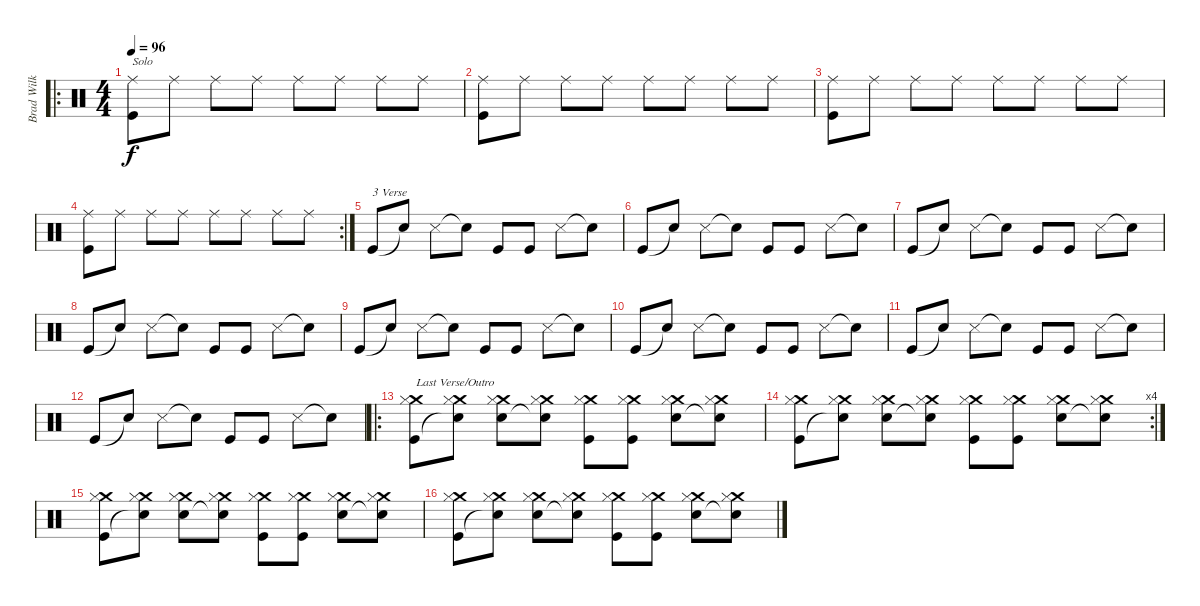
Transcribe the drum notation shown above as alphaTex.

\track ("Brad Wilk" "Brad Wilk") {instrument percussion}
\staff {score}
\articulation defaults
\ro
\ts (4 4)
\tempo 96
\clef neutral
\ks c
("Ride (middle)" "Kick (hit)").8{txt "Solo" dy f} "Ride (middle)".8 "Ride (middle)".8 "Ride (middle)".8 "Ride (middle)".8 "Ride (middle)".8 "Ride (middle)".8 "Ride (middle)".8 |
("Ride (middle)" "Kick (hit)").8 "Ride (middle)".8 "Ride (middle)".8 "Ride (middle)".8 "Ride (middle)".8 "Ride (middle)".8 "Ride (middle)".8 "Ride (middle)".8 |
("Ride (middle)" "Kick (hit)").8 "Ride (middle)".8 "Ride (middle)".8 "Ride (middle)".8 "Ride (middle)".8 "Ride (middle)".8 "Ride (middle)".8 "Ride (middle)".8 |
\rc 2
("Ride (middle)" "Kick (hit)").8 "Ride (middle)".8 "Ride (middle)".8 "Ride (middle)".8 "Ride (middle)".8 "Ride (middle)".8 "Ride (middle)".8 "Ride (middle)".8 |
"Kick (hit)".8{txt "3 Verse"} "Snare (hit)"{t}.8 "Snare (side stick) 3".8 "Snare (hit)"{t}.8 "Kick (hit)".8 "Kick (hit)".8 "Snare (side stick) 3".8 "Snare (hit)"{t}.8 |
"Kick (hit)".8 "Snare (hit)"{t}.8 "Snare (side stick) 3".8 "Snare (hit)"{t}.8 "Kick (hit)".8 "Kick (hit)".8 "Snare (side stick) 3".8 "Snare (hit)"{t}.8 |
"Kick (hit)".8 "Snare (hit)"{t}.8 "Snare (side stick) 3".8 "Snare (hit)"{t}.8 "Kick (hit)".8 "Kick (hit)".8 "Snare (side stick) 3".8 "Snare (hit)"{t}.8 |
"Kick (hit)".8 "Snare (hit)"{t}.8 "Snare (side stick) 3".8 "Snare (hit)"{t}.8 "Kick (hit)".8 "Kick (hit)".8 "Snare (side stick) 3".8 "Snare (hit)"{t}.8 |
"Kick (hit)".8 "Snare (hit)"{t}.8 "Snare (side stick) 3".8 "Snare (hit)"{t}.8 "Kick (hit)".8 "Kick (hit)".8 "Snare (side stick) 3".8 "Snare (hit)"{t}.8 |
"Kick (hit)".8 "Snare (hit)"{t}.8 "Snare (side stick) 3".8 "Snare (hit)"{t}.8 "Kick (hit)".8 "Kick (hit)".8 "Snare (side stick) 3".8 "Snare (hit)"{t}.8 |
"Kick (hit)".8 "Snare (hit)"{t}.8 "Snare (side stick) 3".8 "Snare (hit)"{t}.8 "Kick (hit)".8 "Kick (hit)".8 "Snare (side stick) 3".8 "Snare (hit)"{t}.8 |
"Kick (hit)".8 "Snare (hit)"{t}.8 "Snare (side stick) 3".8 "Snare (hit)"{t}.8 "Kick (hit)".8 "Kick (hit)".8 "Snare (side stick) 3".8 "Snare (hit)"{t}.8 |
\ro
("Crash medium (hit)" "Hi-Hat (closed)" "Kick (hit)").8{txt "Last Verse/Outro"} ("Crash medium (hit)" "Hi-Hat (closed)" "Snare (hit)"{t}).8 ("Crash medium (hit)" "Hi-Hat (closed)" "Snare (hit) 2").8 ("Crash medium (hit)" "Hi-Hat (closed)" "Snare (hit)"{t}).8 ("Crash medium (hit)" "Hi-Hat (closed)" "Kick (hit)").8 ("Crash medium (hit)" "Hi-Hat (closed)" "Kick (hit)").8 ("Crash medium (hit)" "Hi-Hat (closed)" "Snare (hit) 2").8 ("Crash medium (hit)" "Hi-Hat (closed)" "Snare (hit)"{t}).8 |
\rc 4
("Crash medium (hit)" "Hi-Hat (closed)" "Kick (hit)").8 ("Crash medium (hit)" "Hi-Hat (closed)" "Snare (hit)"{t}).8 ("Crash medium (hit)" "Hi-Hat (closed)" "Snare (hit) 2").8 ("Crash medium (hit)" "Hi-Hat (closed)" "Snare (hit)"{t}).8 ("Crash medium (hit)" "Hi-Hat (closed)" "Kick (hit)").8 ("Crash medium (hit)" "Hi-Hat (closed)" "Kick (hit)").8 ("Crash medium (hit)" "Hi-Hat (closed)" "Snare (hit) 2").8 ("Crash medium (hit)" "Hi-Hat (closed)" "Snare (hit)"{t}).8 |
("Crash medium (hit)" "Hi-Hat (closed)" "Kick (hit)").8 ("Crash medium (hit)" "Hi-Hat (closed)" "Snare (hit)"{t}).8 ("Crash medium (hit)" "Hi-Hat (closed)" "Snare (hit) 2").8 ("Crash medium (hit)" "Hi-Hat (closed)" "Snare (hit)"{t}).8 ("Crash medium (hit)" "Hi-Hat (closed)" "Kick (hit)").8 ("Crash medium (hit)" "Hi-Hat (closed)" "Kick (hit)").8 ("Crash medium (hit)" "Hi-Hat (closed)" "Snare (hit) 2").8 ("Crash medium (hit)" "Hi-Hat (closed)" "Snare (hit)"{t}).8 |
("Crash medium (hit)" "Hi-Hat (closed)" "Kick (hit)").8 ("Crash medium (hit)" "Hi-Hat (closed)" "Snare (hit)"{t}).8 ("Crash medium (hit)" "Hi-Hat (closed)" "Snare (hit) 2").8 ("Crash medium (hit)" "Hi-Hat (closed)" "Snare (hit)"{t}).8 ("Crash medium (hit)" "Hi-Hat (closed)" "Kick (hit)").8 ("Crash medium (hit)" "Hi-Hat (closed)" "Kick (hit)").8 ("Crash medium (hit)" "Hi-Hat (closed)" "Snare (hit) 2").8 ("Crash medium (hit)" "Hi-Hat (closed)" "Snare (hit)"{t}).8
